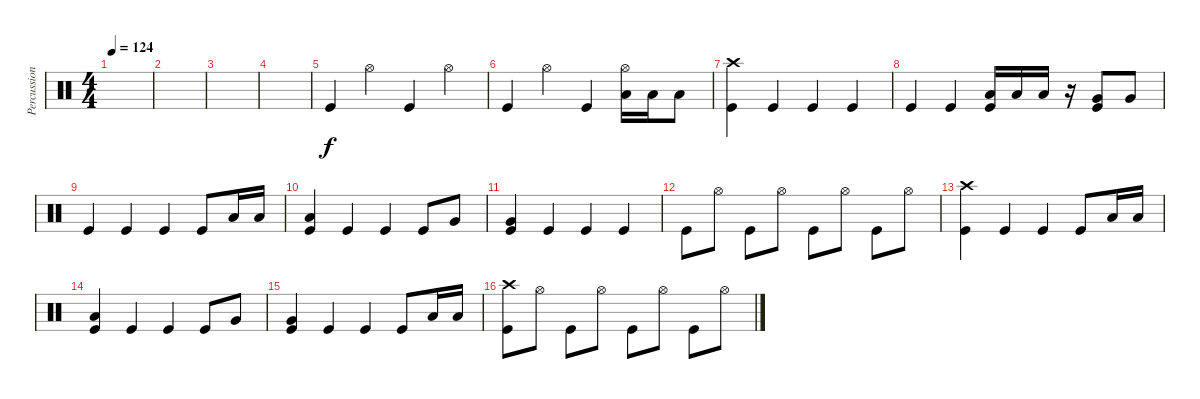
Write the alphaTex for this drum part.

\track ("Percussion" "Percussion") {instrument percussion}
\staff {score}
\articulation defaults
\ts (4 4)
\tempo 124
\clef neutral
\ks c
|
|
|
|
"Kick (hit)".4 "Hi-Hat (open)".4 "Kick (hit)".4 "Hi-Hat (open)".4 |
"Kick (hit)".4 "Hi-Hat (open)".4 "Kick (hit)".4 ("Hi-Hat (open)" "Low Tom (hit)").16 "Low Tom (hit)".16 "Low Tom (hit)".8 |
("Crash high (hit)" "Kick (hit)").4 "Kick (hit)".4 "Kick (hit)".4 "Kick (hit)".4 |
"Kick (hit)".4 "Kick (hit)".4 ("Low Tom (hit)" "Kick (hit)").16 "Low Tom (hit)".16 "Low Tom (hit)".16 r.16 ("Very Low Tom (hit)" "Kick (hit)").8 "Very Low Tom (hit)".8 |
"Kick (hit)".4 "Kick (hit)".4 "Kick (hit)".4 "Kick (hit)".8 "Low Tom (hit)".16 "Low Tom (hit)".16 |
("Low Tom (hit)" "Kick (hit)").4 "Kick (hit)".4 "Kick (hit)".4 "Kick (hit)".8 "Very Low Tom (hit)".8 |
("Very Low Tom (hit)" "Kick (hit)").4 "Kick (hit)".4 "Kick (hit)".4 "Kick (hit)".4 |
"Kick (hit)".8 "Hi-Hat (open)".8 "Kick (hit)".8 "Hi-Hat (open)".8 "Kick (hit)".8 "Hi-Hat (open)".8 "Kick (hit)".8 "Hi-Hat (open)".8 |
("Crash high (hit)" "Kick (hit)").4 "Kick (hit)".4 "Kick (hit)".4 "Kick (hit)".8 "Low Tom (hit)".16 "Low Tom (hit)".16 |
("Low Tom (hit)" "Kick (hit)").4 "Kick (hit)".4 "Kick (hit)".4 "Kick (hit)".8 "Very Low Tom (hit)".8 |
("Very Low Tom (hit)" "Kick (hit)").4 "Kick (hit)".4 "Kick (hit)".4 "Kick (hit)".8 "Low Tom (hit)".16 "Low Tom (hit)".16 |
("Crash high (hit)" "Kick (hit)").8 "Hi-Hat (open)".8 "Kick (hit)".8 "Hi-Hat (open)".8 "Kick (hit)".8 "Hi-Hat (open)".8 "Kick (hit)".8 "Hi-Hat (open)".8
